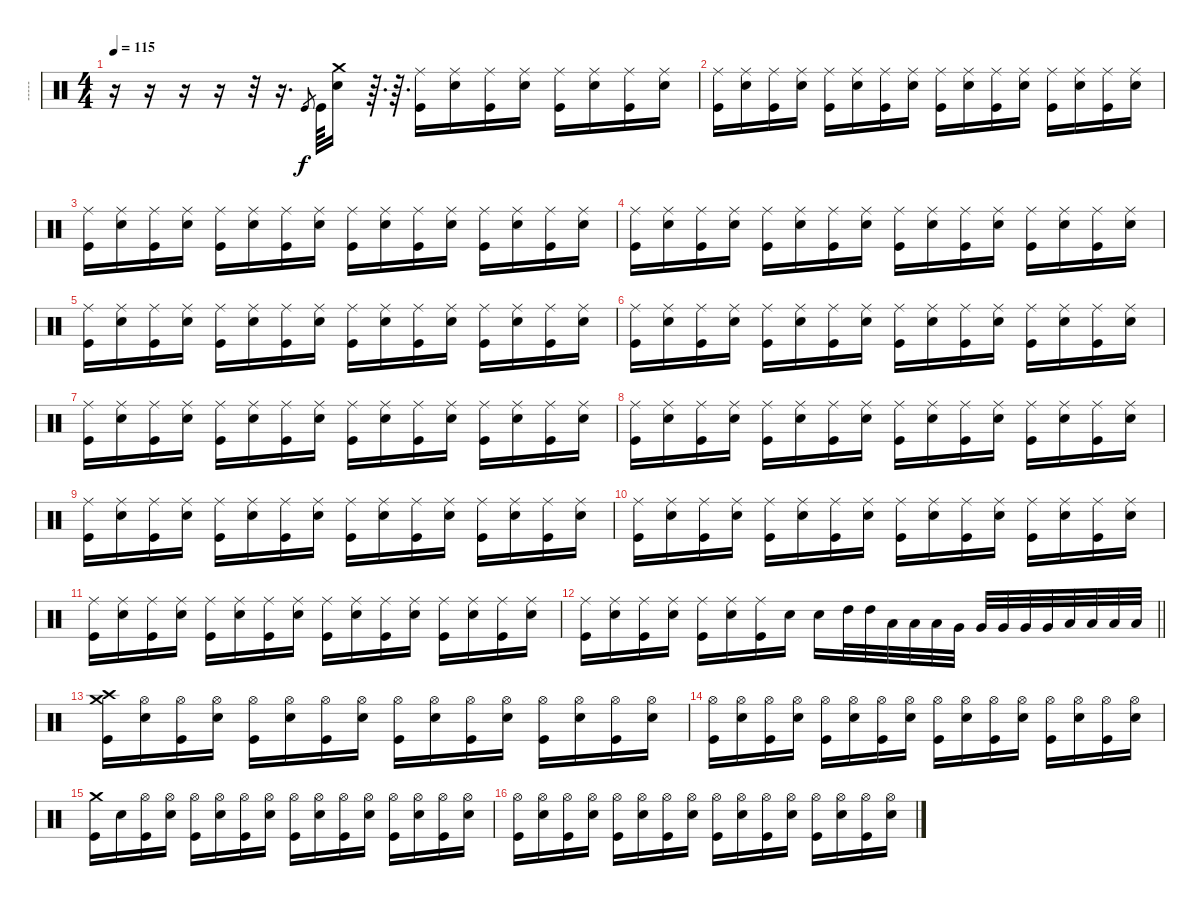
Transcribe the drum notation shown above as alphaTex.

\track ("-----" "-----") {instrument percussion}
\staff {score}
\articulation defaults
\ts (4 4)
\section ("" "")
\tempo 115
\clef neutral
\ks c
r.16{dy f} r.16 r.16 r.16 r.32 r.16{d} "Kick (hit)".8{gr} "Kick (hit)".64 ("Crash medium (hit)" "Electric Snare (hit)").16 r.64{d} r.64{d} ("Ride (middle)" "Kick (hit)").16 ("Ride (middle)" "Electric Snare (hit)").16 ("Ride (middle)" "Kick (hit)").16 ("Ride (middle)" "Electric Snare (hit)").16 ("Ride (middle)" "Kick (hit)").16 ("Ride (middle)" "Electric Snare (hit)").16 ("Ride (middle)" "Kick (hit)").16 ("Ride (middle)" "Electric Snare (hit)").16 |
("Ride (middle)" "Kick (hit)").16 ("Ride (middle)" "Electric Snare (hit)").16 ("Ride (middle)" "Kick (hit)").16 ("Ride (middle)" "Electric Snare (hit)").16 ("Ride (middle)" "Kick (hit)").16 ("Ride (middle)" "Electric Snare (hit)").16 ("Ride (middle)" "Kick (hit)").16 ("Ride (middle)" "Electric Snare (hit)").16 ("Ride (middle)" "Kick (hit)").16 ("Ride (middle)" "Electric Snare (hit)").16 ("Ride (middle)" "Kick (hit)").16 ("Ride (middle)" "Electric Snare (hit)").16 ("Ride (middle)" "Kick (hit)").16 ("Ride (middle)" "Electric Snare (hit)").16 ("Ride (middle)" "Kick (hit)").16 ("Ride (middle)" "Electric Snare (hit)").16 |
("Ride (middle)" "Kick (hit)").16 ("Ride (middle)" "Electric Snare (hit)").16 ("Ride (middle)" "Kick (hit)").16 ("Ride (middle)" "Electric Snare (hit)").16 ("Ride (middle)" "Kick (hit)").16 ("Ride (middle)" "Electric Snare (hit)").16 ("Ride (middle)" "Kick (hit)").16 ("Ride (middle)" "Electric Snare (hit)").16 ("Ride (middle)" "Kick (hit)").16 ("Ride (middle)" "Electric Snare (hit)").16 ("Ride (middle)" "Kick (hit)").16 ("Ride (middle)" "Electric Snare (hit)").16 ("Ride (middle)" "Kick (hit)").16 ("Ride (middle)" "Electric Snare (hit)").16 ("Ride (middle)" "Kick (hit)").16 ("Ride (middle)" "Electric Snare (hit)").16 |
("Ride (middle)" "Kick (hit)").16 ("Ride (middle)" "Electric Snare (hit)").16 ("Ride (middle)" "Kick (hit)").16 ("Ride (middle)" "Electric Snare (hit)").16 ("Ride (middle)" "Kick (hit)").16 ("Ride (middle)" "Electric Snare (hit)").16 ("Ride (middle)" "Kick (hit)").16 ("Ride (middle)" "Electric Snare (hit)").16 ("Ride (middle)" "Kick (hit)").16 ("Ride (middle)" "Electric Snare (hit)").16 ("Ride (middle)" "Kick (hit)").16 ("Ride (middle)" "Electric Snare (hit)").16 ("Ride (middle)" "Kick (hit)").16 ("Ride (middle)" "Electric Snare (hit)").16 ("Ride (middle)" "Kick (hit)").16 ("Ride (middle)" "Electric Snare (hit)").16 |
("Ride (middle)" "Kick (hit)").16 ("Ride (middle)" "Electric Snare (hit)").16 ("Ride (middle)" "Kick (hit)").16 ("Ride (middle)" "Electric Snare (hit)").16 ("Ride (middle)" "Kick (hit)").16 ("Ride (middle)" "Electric Snare (hit)").16 ("Ride (middle)" "Kick (hit)").16 ("Ride (middle)" "Electric Snare (hit)").16 ("Ride (middle)" "Kick (hit)").16 ("Ride (middle)" "Electric Snare (hit)").16 ("Ride (middle)" "Kick (hit)").16 ("Ride (middle)" "Electric Snare (hit)").16 ("Ride (middle)" "Kick (hit)").16 ("Ride (middle)" "Electric Snare (hit)").16 ("Ride (middle)" "Kick (hit)").16 ("Ride (middle)" "Electric Snare (hit)").16 |
("Ride (middle)" "Kick (hit)").16 ("Ride (middle)" "Electric Snare (hit)").16 ("Ride (middle)" "Kick (hit)").16 ("Ride (middle)" "Electric Snare (hit)").16 ("Ride (middle)" "Kick (hit)").16 ("Ride (middle)" "Electric Snare (hit)").16 ("Ride (middle)" "Kick (hit)").16 ("Ride (middle)" "Electric Snare (hit)").16 ("Ride (middle)" "Kick (hit)").16 ("Ride (middle)" "Electric Snare (hit)").16 ("Ride (middle)" "Kick (hit)").16 ("Ride (middle)" "Electric Snare (hit)").16 ("Ride (middle)" "Kick (hit)").16 ("Ride (middle)" "Electric Snare (hit)").16 ("Ride (middle)" "Kick (hit)").16 ("Ride (middle)" "Electric Snare (hit)").16 |
("Ride (middle)" "Kick (hit)").16 ("Ride (middle)" "Electric Snare (hit)").16 ("Ride (middle)" "Kick (hit)").16 ("Ride (middle)" "Electric Snare (hit)").16 ("Ride (middle)" "Kick (hit)").16 ("Ride (middle)" "Electric Snare (hit)").16 ("Ride (middle)" "Kick (hit)").16 ("Ride (middle)" "Electric Snare (hit)").16 ("Ride (middle)" "Kick (hit)").16 ("Ride (middle)" "Electric Snare (hit)").16 ("Ride (middle)" "Kick (hit)").16 ("Ride (middle)" "Electric Snare (hit)").16 ("Ride (middle)" "Kick (hit)").16 ("Ride (middle)" "Electric Snare (hit)").16 ("Ride (middle)" "Kick (hit)").16 ("Ride (middle)" "Electric Snare (hit)").16 |
("Ride (middle)" "Kick (hit)").16 ("Ride (middle)" "Electric Snare (hit)").16 ("Ride (middle)" "Kick (hit)").16 ("Ride (middle)" "Electric Snare (hit)").16 ("Ride (middle)" "Kick (hit)").16 ("Ride (middle)" "Electric Snare (hit)").16 ("Ride (middle)" "Kick (hit)").16 ("Ride (middle)" "Electric Snare (hit)").16 ("Ride (middle)" "Kick (hit)").16 ("Ride (middle)" "Electric Snare (hit)").16 ("Ride (middle)" "Kick (hit)").16 ("Ride (middle)" "Electric Snare (hit)").16 ("Ride (middle)" "Kick (hit)").16 ("Ride (middle)" "Electric Snare (hit)").16 ("Ride (middle)" "Kick (hit)").16 ("Ride (middle)" "Electric Snare (hit)").16 |
("Ride (middle)" "Kick (hit)").16 ("Ride (middle)" "Electric Snare (hit)").16 ("Ride (middle)" "Kick (hit)").16 ("Ride (middle)" "Electric Snare (hit)").16 ("Ride (middle)" "Kick (hit)").16 ("Ride (middle)" "Electric Snare (hit)").16 ("Ride (middle)" "Kick (hit)").16 ("Ride (middle)" "Electric Snare (hit)").16 ("Ride (middle)" "Kick (hit)").16 ("Ride (middle)" "Electric Snare (hit)").16 ("Ride (middle)" "Kick (hit)").16 ("Ride (middle)" "Electric Snare (hit)").16 ("Ride (middle)" "Kick (hit)").16 ("Ride (middle)" "Electric Snare (hit)").16 ("Ride (middle)" "Kick (hit)").16 ("Ride (middle)" "Electric Snare (hit)").16 |
("Ride (middle)" "Kick (hit)").16 ("Ride (middle)" "Electric Snare (hit)").16 ("Ride (middle)" "Kick (hit)").16 ("Ride (middle)" "Electric Snare (hit)").16 ("Ride (middle)" "Kick (hit)").16 ("Ride (middle)" "Electric Snare (hit)").16 ("Ride (middle)" "Kick (hit)").16 ("Ride (middle)" "Electric Snare (hit)").16 ("Ride (middle)" "Kick (hit)").16 ("Ride (middle)" "Electric Snare (hit)").16 ("Ride (middle)" "Kick (hit)").16 ("Ride (middle)" "Electric Snare (hit)").16 ("Ride (middle)" "Kick (hit)").16 ("Ride (middle)" "Electric Snare (hit)").16 ("Ride (middle)" "Kick (hit)").16 ("Ride (middle)" "Electric Snare (hit)").16 |
("Ride (middle)" "Kick (hit)").16 ("Ride (middle)" "Electric Snare (hit)").16 ("Ride (middle)" "Kick (hit)").16 ("Ride (middle)" "Electric Snare (hit)").16 ("Ride (middle)" "Kick (hit)").16 ("Ride (middle)" "Electric Snare (hit)").16 ("Ride (middle)" "Kick (hit)").16 ("Ride (middle)" "Electric Snare (hit)").16 ("Ride (middle)" "Kick (hit)").16 ("Ride (middle)" "Electric Snare (hit)").16 ("Ride (middle)" "Kick (hit)").16 ("Ride (middle)" "Electric Snare (hit)").16 ("Ride (middle)" "Kick (hit)").16 ("Ride (middle)" "Electric Snare (hit)").16 ("Ride (middle)" "Kick (hit)").16 ("Ride (middle)" "Electric Snare (hit)").16 |
\barLineRight lightlight
("Ride (middle)" "Kick (hit)").16 ("Ride (middle)" "Electric Snare (hit)").16 ("Ride (middle)" "Kick (hit)").16 ("Ride (middle)" "Electric Snare (hit)").16 ("Ride (middle)" "Kick (hit)").16 ("Ride (middle)" "Electric Snare (hit)").16 ("Ride (middle)" "Kick (hit)").16 "Electric Snare (hit)".16 "Electric Snare (hit)".16 "High Tom (hit)".32 "High Tom (hit)".32 "Low Tom (hit)".32 "Low Tom (hit)".32 "Low Tom (hit)".32 "Very Low Tom (hit)".32 "Very Low Tom (hit)".32 "Very Low Tom (hit)".32 "Very Low Tom (hit)".32 "Very Low Tom (hit)".32 "Low Floor Tom (hit)".32 "Low Floor Tom (hit)".32 "Low Floor Tom (hit)".32 "Low Floor Tom (hit)".32 |
\section ("" "")
("Crash medium (hit)" "Crash high (hit)" "Kick (hit)").16 ("Hi-Hat (open)" "Electric Snare (hit)").16 ("Hi-Hat (open)" "Kick (hit)").16 ("Hi-Hat (open)" "Electric Snare (hit)").16 ("Hi-Hat (open)" "Kick (hit)").16 ("Hi-Hat (open)" "Electric Snare (hit)").16 ("Hi-Hat (open)" "Kick (hit)").16 ("Hi-Hat (open)" "Electric Snare (hit)").16 ("Hi-Hat (open)" "Kick (hit)").16 ("Hi-Hat (open)" "Electric Snare (hit)").16 ("Hi-Hat (open)" "Kick (hit)").16 ("Hi-Hat (open)" "Electric Snare (hit)").16 ("Hi-Hat (open)" "Kick (hit)").16 ("Hi-Hat (open)" "Electric Snare (hit)").16 ("Hi-Hat (open)" "Kick (hit)").16 ("Hi-Hat (open)" "Electric Snare (hit)").16 |
("Hi-Hat (open)" "Kick (hit)").16 ("Hi-Hat (open)" "Electric Snare (hit)").16 ("Hi-Hat (open)" "Kick (hit)").16 ("Hi-Hat (open)" "Electric Snare (hit)").16 ("Hi-Hat (open)" "Kick (hit)").16 ("Hi-Hat (open)" "Electric Snare (hit)").16 ("Hi-Hat (open)" "Kick (hit)").16 ("Hi-Hat (open)" "Electric Snare (hit)").16 ("Hi-Hat (open)" "Kick (hit)").16 ("Hi-Hat (open)" "Electric Snare (hit)").16 ("Hi-Hat (open)" "Kick (hit)").16 ("Hi-Hat (open)" "Electric Snare (hit)").16 ("Hi-Hat (open)" "Kick (hit)").16 ("Hi-Hat (open)" "Electric Snare (hit)").16 ("Hi-Hat (open)" "Kick (hit)").16 ("Hi-Hat (open)" "Electric Snare (hit)").16 |
("Crash medium (hit)" "Kick (hit)").16 "Electric Snare (hit)".16 ("Hi-Hat (open)" "Kick (hit)").16 ("Hi-Hat (open)" "Electric Snare (hit)").16 ("Hi-Hat (open)" "Kick (hit)").16 ("Hi-Hat (open)" "Electric Snare (hit)").16 ("Hi-Hat (open)" "Kick (hit)").16 ("Hi-Hat (open)" "Electric Snare (hit)").16 ("Hi-Hat (open)" "Kick (hit)").16 ("Hi-Hat (open)" "Electric Snare (hit)").16 ("Hi-Hat (open)" "Kick (hit)").16 ("Hi-Hat (open)" "Electric Snare (hit)").16 ("Hi-Hat (open)" "Kick (hit)").16 ("Hi-Hat (open)" "Electric Snare (hit)").16 ("Hi-Hat (open)" "Kick (hit)").16 ("Hi-Hat (open)" "Electric Snare (hit)").16 |
("Hi-Hat (open)" "Kick (hit)").16 ("Hi-Hat (open)" "Electric Snare (hit)").16 ("Hi-Hat (open)" "Kick (hit)").16 ("Hi-Hat (open)" "Electric Snare (hit)").16 ("Hi-Hat (open)" "Kick (hit)").16 ("Hi-Hat (open)" "Electric Snare (hit)").16 ("Hi-Hat (open)" "Kick (hit)").16 ("Hi-Hat (open)" "Electric Snare (hit)").16 ("Hi-Hat (open)" "Kick (hit)").16 ("Hi-Hat (open)" "Electric Snare (hit)").16 ("Hi-Hat (open)" "Kick (hit)").16 ("Hi-Hat (open)" "Electric Snare (hit)").16 ("Hi-Hat (open)" "Kick (hit)").16 ("Hi-Hat (open)" "Electric Snare (hit)").16 ("Hi-Hat (open)" "Kick (hit)").16 ("Hi-Hat (open)" "Electric Snare (hit)").16
